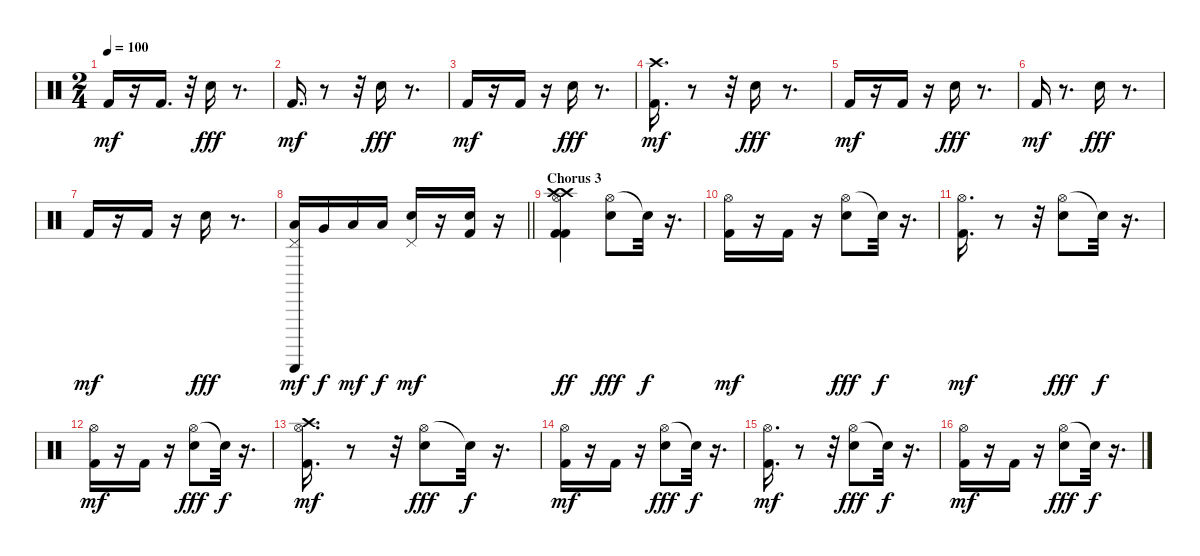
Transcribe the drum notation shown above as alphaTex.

\track "" {instrument percussion}
\staff {score}
\articulation defaults
\ts (2 4)
\tempo 100
\clef neutral
\ks c "Kick (hit) 2".16{dy mf}
r.16 "Kick (hit) 2".16{d} r.32 "Snare (hit) 2".16{dy fff} r.8{d} |
"Kick (hit) 2".16{d dy mf} r.8 r.32 "Snare (hit) 2".16{dy fff} r.8{d} |
"Kick (hit) 2".16{dy mf} r.16 "Kick (hit) 2".16 r.16 "Snare (hit) 2".16{dy fff} r.8{d} |
("Kick (hit) 2" "Crash high (hit)").16{d dy mf} r.8 r.32 "Snare (hit) 2".16{dy fff} r.8{d} |
"Kick (hit) 2".16{dy mf} r.16 "Kick (hit) 2".16 r.16 "Snare (hit) 2".16{dy fff} r.8{d} |
"Kick (hit) 2".16{dy mf} r.8{d} "Snare (hit) 2".16{dy fff} r.8{d} |
"Kick (hit) 2".16{dy mf} r.16 "Kick (hit) 2".16 r.16 "Snare (hit) 2".16{dy fff} r.8{d} |
\barLineRight lightlight
("Guiro (scrap-return)" "Pedal Hi-Hat (hit)" "Low Floor Tom (hit)").16{dy mf balance 9} "Very Low Tom (hit)".16{dy f} "Low Tom (hit)".16{dy mf} "Low Floor Tom (hit)".16{dy f} ("Pedal Hi-Hat (hit)" "Snare (hit) 2").16{dy mf} r.16 ("Snare (hit) 2" "Kick (hit) 2").16{balance 9} r.16 |
\section ("" "Chorus 3")
("Kick (hit) 2" "Hi-Hat (open)" "Kick (hit) 2" "Crash high (hit)" "Crash high (hit)").4{dy ff} ("Hi-Hat (open)" "Snare (hit) 2").8{dy fff} "Snare (hit)"{t}.32{dy f} r.16{d} |
("Hi-Hat (open)" "Kick (hit) 2").16{dy mf} r.16 "Kick (hit) 2".16 r.16 ("Hi-Hat (open)" "Snare (hit) 2").8{dy fff} "Snare (hit)"{t}.32{dy f} r.16{d} |
("Hi-Hat (open)" "Kick (hit) 2").16{d dy mf} r.8 r.32 ("Hi-Hat (open)" "Snare (hit) 2").8{dy fff} "Snare (hit)"{t}.32{dy f} r.16{d} |
("Hi-Hat (open)" "Kick (hit) 2").16{dy mf} r.16 "Kick (hit) 2".16 r.16 ("Hi-Hat (open)" "Snare (hit) 2").8{dy fff} "Snare (hit)"{t}.32{dy f} r.16{d} |
("Hi-Hat (open)" "Crash high (hit)" "Kick (hit) 2").16{d dy mf} r.8 r.32 ("Hi-Hat (open)" "Snare (hit) 2").8{dy fff} "Snare (hit)"{t}.32{dy f} r.16{d} |
("Hi-Hat (open)" "Kick (hit) 2").16{dy mf} r.16 "Kick (hit) 2".16 r.16 ("Hi-Hat (open)" "Snare (hit) 2").8{dy fff} "Snare (hit)"{t}.32{dy f} r.16{d} |
("Hi-Hat (open)" "Kick (hit) 2").16{d dy mf} r.8 r.32 ("Hi-Hat (open)" "Snare (hit) 2").8{dy fff} "Snare (hit)"{t}.32{dy f} r.16{d} |
("Hi-Hat (open)" "Kick (hit) 2").16{dy mf} r.16 "Kick (hit) 2".16 r.16 ("Hi-Hat (open)" "Snare (hit) 2").8{dy fff} "Snare (hit)"{t}.32{dy f} r.16{d}
